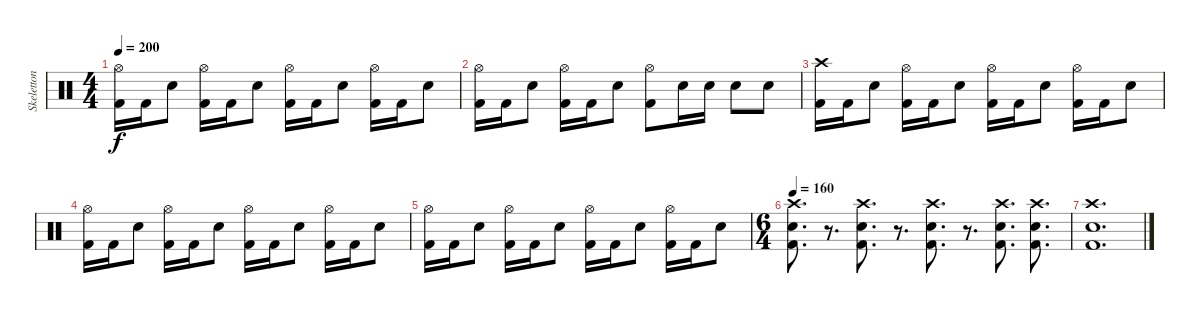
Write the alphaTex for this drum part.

\track ("Skeletton - Drums" "Skeletton ") {instrument percussion}
\staff {score}
\articulation defaults
\ts (4 4)
\tempo 200
\clef neutral
\ks c
("Hi-Hat (open)" "Kick (hit) 2").16{dy f} "Kick (hit) 2".16 "Electric Snare (hit)".8 ("Hi-Hat (open)" "Kick (hit) 2").16 "Kick (hit) 2".16 "Electric Snare (hit)".8 ("Hi-Hat (open)" "Kick (hit) 2").16 "Kick (hit) 2".16 "Electric Snare (hit)".8 ("Hi-Hat (open)" "Kick (hit) 2").16 "Kick (hit) 2".16 "Electric Snare (hit)".8 |
("Hi-Hat (open)" "Kick (hit) 2").16 "Kick (hit) 2".16 "Electric Snare (hit)".8 ("Hi-Hat (open)" "Kick (hit) 2").16 "Kick (hit) 2".16 "Electric Snare (hit)".8 ("Hi-Hat (open)" "Kick (hit) 2").8 "Electric Snare (hit)".16 "Electric Snare (hit)".16 "Electric Snare (hit)".8 "Electric Snare (hit)".8 |
("Crash high (hit)" "Kick (hit) 2").16 "Kick (hit) 2".16 "Electric Snare (hit)".8 ("Hi-Hat (open)" "Kick (hit) 2").16 "Kick (hit) 2".16 "Electric Snare (hit)".8 ("Hi-Hat (open)" "Kick (hit) 2").16 "Kick (hit) 2".16 "Electric Snare (hit)".8 ("Hi-Hat (open)" "Kick (hit) 2").16 "Kick (hit) 2".16 "Electric Snare (hit)".8 |
("Hi-Hat (open)" "Kick (hit) 2").16 "Kick (hit) 2".16 "Electric Snare (hit)".8 ("Hi-Hat (open)" "Kick (hit) 2").16 "Kick (hit) 2".16 "Electric Snare (hit)".8 ("Hi-Hat (open)" "Kick (hit) 2").16 "Kick (hit) 2".16 "Electric Snare (hit)".8 ("Hi-Hat (open)" "Kick (hit) 2").16 "Kick (hit) 2".16 "Electric Snare (hit)".8 |
("Hi-Hat (open)" "Kick (hit) 2").16 "Kick (hit) 2".16 "Electric Snare (hit)".8 ("Hi-Hat (open)" "Kick (hit) 2").16 "Kick (hit) 2".16 "Electric Snare (hit)".8 ("Hi-Hat (open)" "Kick (hit) 2").16 "Kick (hit) 2".16 "Electric Snare (hit)".8 ("Hi-Hat (open)" "Kick (hit) 2").16 "Kick (hit) 2".16 "Electric Snare (hit)".8 |
\ts (6 4)
\tempo 160
("Crash high (hit)" "Electric Snare (hit)" "Kick (hit) 2").8{d} r.8{d} ("Crash high (hit)" "Electric Snare (hit)" "Kick (hit) 2").8{d} r.8{d} ("Crash high (hit)" "Electric Snare (hit)" "Kick (hit) 2").8{d} r.8{d} ("Crash high (hit)" "Electric Snare (hit)" "Kick (hit) 2").8{d} ("Crash high (hit)" "Electric Snare (hit)" "Kick (hit) 2").8{d} |
("Crash high (hit)" "Electric Snare (hit)" "Kick (hit) 2").1{d}
